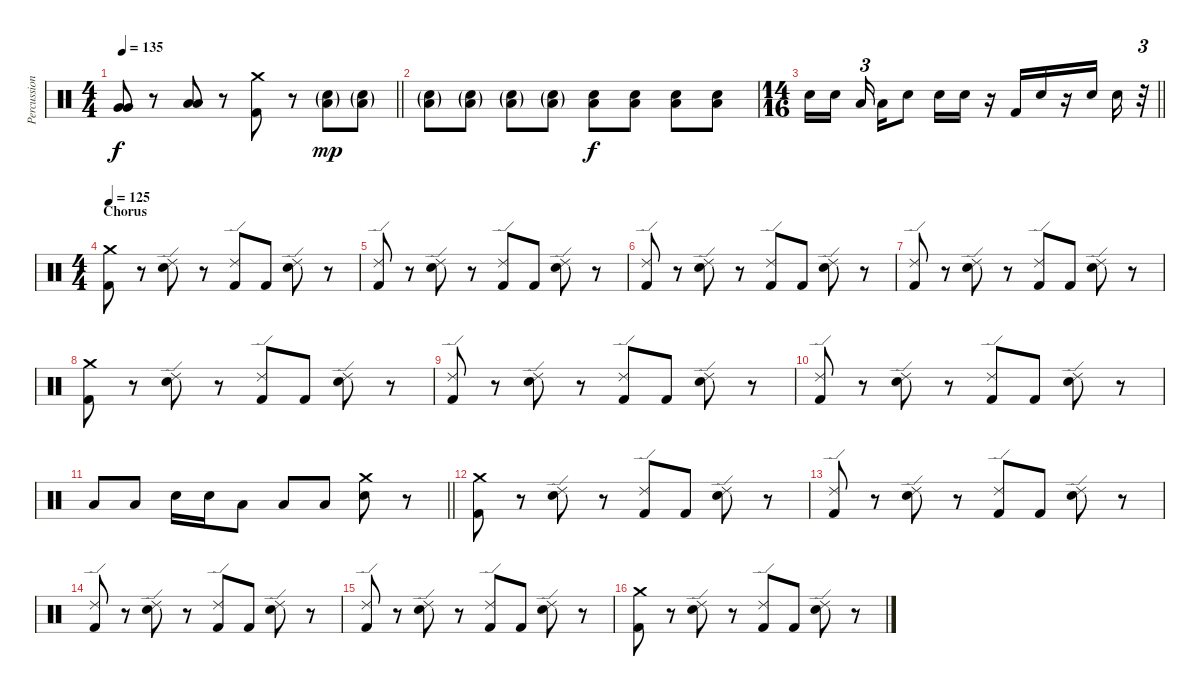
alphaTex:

\track ("Percussion" "Percussion") {instrument percussion}
\staff {score}
\articulation defaults
\ts (4 4)
\tempo 135
\clef neutral
\barLineRight lightlight
\ks c
("Very Low Tom (hit)" "Very Low Tom (hit)").8{dy f} r.8 ("Low Tom (hit)" "Low Tom (hit)").8 r.8 ("Crash medium (hit)" "Kick (hit) 2").8 r.8 ("Electric Snare (hit)"{g} "Low Tom (hit)"{g}).8{dy mp} ("Electric Snare (hit)"{g} "Low Tom (hit)"{g}).8 |
("Electric Snare (hit)"{g} "Low Tom (hit)"{g}).8 ("Electric Snare (hit)"{g} "Low Tom (hit)"{g}).8 ("Electric Snare (hit)"{g} "Low Tom (hit)"{g}).8 ("Electric Snare (hit)"{g} "Low Tom (hit)"{g}).8 ("Electric Snare (hit)" "Low Tom (hit)").8{dy f} ("Electric Snare (hit)" "Low Tom (hit)").8 ("Electric Snare (hit)" "Low Tom (hit)").8 ("Electric Snare (hit)" "Low Tom (hit)").8 |
\ts (14 16)
\barLineRight lightlight "Electric Snare (hit)".16 "Electric Snare (hit)".16 "Low Tom (hit)".16{tu (3 2)} "Low Tom (hit)".16 "Electric Snare (hit)".8 "Electric Snare (hit)".16 "Electric Snare (hit)".16
r.16 "Kick (hit) 2".16 "Electric Snare (hit)".16 r.16 "Electric Snare (hit)".16 "Electric Snare (hit)".16 r.32{tu (3 2)} |
\ts (4 4)
\section ("" "Chorus")
\tempo 125
("Crash medium (hit)" "Kick (hit) 2").8 r.8 ("Ride (edge) 2" "Electric Snare (hit)").8 r.8 ("Ride (edge) 2" "Kick (hit) 2").8 "Kick (hit) 2".8 ("Ride (edge) 2" "Electric Snare (hit)").8 r.8 |
("Ride (edge) 2" "Kick (hit) 2").8 r.8 ("Ride (edge) 2" "Electric Snare (hit)").8 r.8 ("Ride (edge) 2" "Kick (hit) 2").8 "Kick (hit) 2".8 ("Ride (edge) 2" "Electric Snare (hit)").8 r.8 |
("Ride (edge) 2" "Kick (hit) 2").8 r.8 ("Ride (edge) 2" "Electric Snare (hit)").8 r.8 ("Ride (edge) 2" "Kick (hit) 2").8 "Kick (hit) 2".8 ("Ride (edge) 2" "Electric Snare (hit)").8 r.8 |
("Ride (edge) 2" "Kick (hit) 2").8 r.8 ("Ride (edge) 2" "Electric Snare (hit)").8 r.8 ("Ride (edge) 2" "Kick (hit) 2").8 "Kick (hit) 2".8 ("Ride (edge) 2" "Electric Snare (hit)").8 r.8 |
("Crash medium (hit)" "Kick (hit) 2").8 r.8 ("Ride (edge) 2" "Electric Snare (hit)").8 r.8 ("Ride (edge) 2" "Kick (hit) 2").8 "Kick (hit) 2".8 ("Ride (edge) 2" "Electric Snare (hit)").8 r.8 |
("Ride (edge) 2" "Kick (hit) 2").8 r.8 ("Ride (edge) 2" "Electric Snare (hit)").8 r.8 ("Ride (edge) 2" "Kick (hit) 2").8 "Kick (hit) 2".8 ("Ride (edge) 2" "Electric Snare (hit)").8 r.8 |
("Ride (edge) 2" "Kick (hit) 2").8 r.8 ("Ride (edge) 2" "Electric Snare (hit)").8 r.8 ("Ride (edge) 2" "Kick (hit) 2").8 "Kick (hit) 2".8 ("Ride (edge) 2" "Electric Snare (hit)").8 r.8 |
\barLineRight lightlight "Low Tom (hit)".8 "Low Tom (hit)".8 "Electric Snare (hit)".16 "Electric Snare (hit)".16 "Low Tom (hit)".8 "Low Tom (hit)".8 "Low Tom (hit)".8
("Crash medium (hit)" "Electric Snare (hit)").8 r.8 |
("Crash medium (hit)" "Kick (hit) 2").8 r.8 ("Ride (edge) 2" "Electric Snare (hit)").8 r.8 ("Ride (edge) 2" "Kick (hit) 2").8 "Kick (hit) 2".8 ("Ride (edge) 2" "Electric Snare (hit)").8 r.8 |
("Ride (edge) 2" "Kick (hit) 2").8 r.8 ("Ride (edge) 2" "Electric Snare (hit)").8 r.8 ("Ride (edge) 2" "Kick (hit) 2").8 "Kick (hit) 2".8 ("Ride (edge) 2" "Electric Snare (hit)").8 r.8 |
("Ride (edge) 2" "Kick (hit) 2").8 r.8 ("Ride (edge) 2" "Electric Snare (hit)").8 r.8 ("Ride (edge) 2" "Kick (hit) 2").8 "Kick (hit) 2".8 ("Ride (edge) 2" "Electric Snare (hit)").8 r.8 |
("Ride (edge) 2" "Kick (hit) 2").8 r.8 ("Ride (edge) 2" "Electric Snare (hit)").8 r.8 ("Ride (edge) 2" "Kick (hit) 2").8 "Kick (hit) 2".8 ("Ride (edge) 2" "Electric Snare (hit)").8 r.8 |
("Crash medium (hit)" "Kick (hit) 2").8 r.8 ("Ride (edge) 2" "Electric Snare (hit)").8 r.8 ("Ride (edge) 2" "Kick (hit) 2").8 "Kick (hit) 2".8 ("Ride (edge) 2" "Electric Snare (hit)").8 r.8
